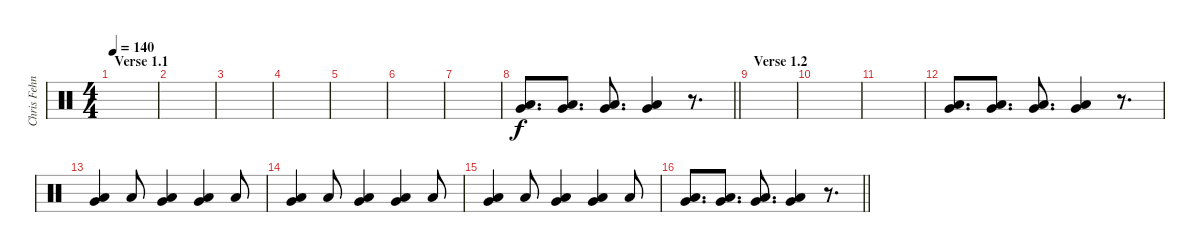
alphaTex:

\track ("Chris Fehn" "Chris Fehn") {instrument percussion}
\staff {score}
\articulation defaults
\ts (4 4)
\section ("" "Verse 1.1")
\tempo 140
\clef neutral
\ks c
|
|
|
|
|
|
|
\barLineRight lightlight
("Very Low Tom (hit)" "Low Floor Tom (hit)").8{d} ("Very Low Tom (hit)" "Low Floor Tom (hit)").8{d} ("Very Low Tom (hit)" "Low Floor Tom (hit)").8{d} ("Very Low Tom (hit)" "Low Floor Tom (hit)").4 r.8{d} |
\section ("" "Verse 1.2")
|
|
|
("Very Low Tom (hit)" "Low Floor Tom (hit)").8{d} ("Very Low Tom (hit)" "Low Floor Tom (hit)").8{d} ("Very Low Tom (hit)" "Low Floor Tom (hit)").8{d} ("Very Low Tom (hit)" "Low Floor Tom (hit)").4 r.8{d} |
("Very Low Tom (hit)" "Low Floor Tom (hit)").4 "Low Floor Tom (hit)".8 ("Very Low Tom (hit)" "Low Floor Tom (hit)").4 ("Very Low Tom (hit)" "Low Floor Tom (hit)").4 "Low Floor Tom (hit)".8 |
("Very Low Tom (hit)" "Low Floor Tom (hit)").4 "Low Floor Tom (hit)".8 ("Very Low Tom (hit)" "Low Floor Tom (hit)").4 ("Very Low Tom (hit)" "Low Floor Tom (hit)").4 "Low Floor Tom (hit)".8 |
("Very Low Tom (hit)" "Low Floor Tom (hit)").4 "Low Floor Tom (hit)".8 ("Very Low Tom (hit)" "Low Floor Tom (hit)").4 ("Very Low Tom (hit)" "Low Floor Tom (hit)").4 "Low Floor Tom (hit)".8 |
\barLineRight lightlight
("Very Low Tom (hit)" "Low Floor Tom (hit)").8{d} ("Very Low Tom (hit)" "Low Floor Tom (hit)").8{d} ("Very Low Tom (hit)" "Low Floor Tom (hit)").8{d} ("Very Low Tom (hit)" "Low Floor Tom (hit)").4 r.8{d}
